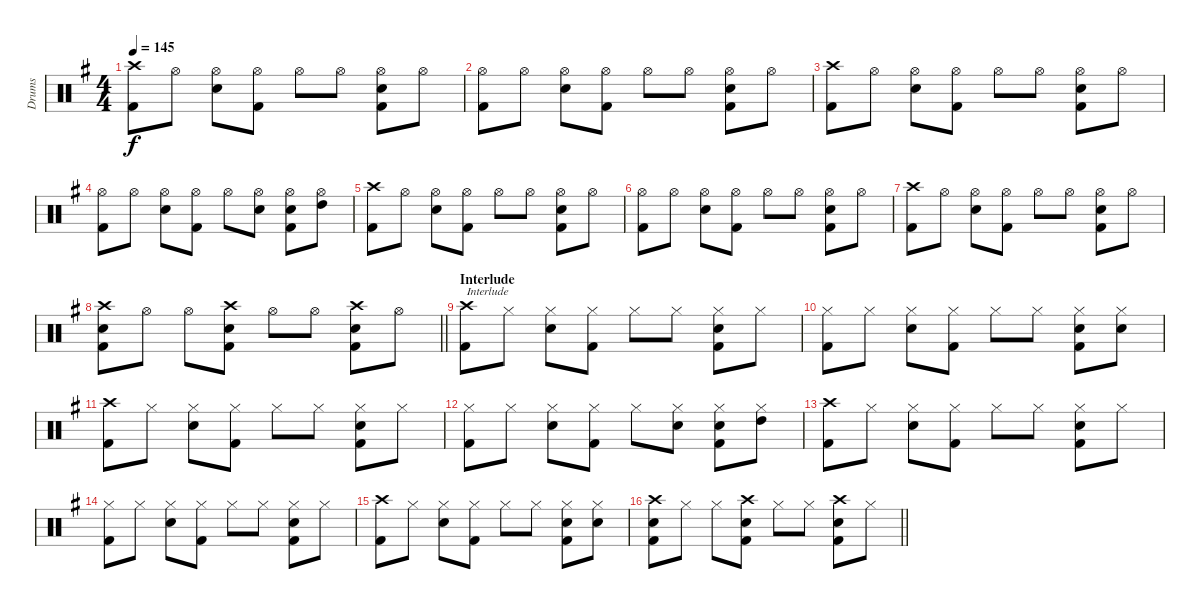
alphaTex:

\track ("Drums" "Drums") {instrument percussion}
\staff {score}
\articulation defaults
\ts (4 4)
\tempo 145
\clef neutral
\ks g
("Crash high (hit)" "Kick (hit) 2").8{dy f} "Hi-Hat (open)".8 ("Hi-Hat (open)" "Electric Snare (hit)").8 ("Hi-Hat (open)" "Kick (hit) 2").8 "Hi-Hat (open)".8 "Hi-Hat (open)".8 ("Hi-Hat (open)" "Electric Snare (hit)" "Kick (hit) 2").8 "Hi-Hat (open)".8 |
("Hi-Hat (open)" "Kick (hit) 2").8 "Hi-Hat (open)".8 ("Hi-Hat (open)" "Electric Snare (hit)").8 ("Hi-Hat (open)" "Kick (hit) 2").8 "Hi-Hat (open)".8 "Hi-Hat (open)".8 ("Hi-Hat (open)" "Electric Snare (hit)" "Kick (hit) 2").8 "Hi-Hat (open)".8 |
("Crash high (hit)" "Kick (hit) 2").8 "Hi-Hat (open)".8 ("Hi-Hat (open)" "Electric Snare (hit)").8 ("Hi-Hat (open)" "Kick (hit) 2").8 "Hi-Hat (open)".8 "Hi-Hat (open)".8 ("Hi-Hat (open)" "Electric Snare (hit)" "Kick (hit) 2").8 "Hi-Hat (open)".8 |
("Hi-Hat (open)" "Kick (hit) 2").8 "Hi-Hat (open)".8 ("Hi-Hat (open)" "Electric Snare (hit)").8 ("Hi-Hat (open)" "Kick (hit) 2").8 "Hi-Hat (open)".8 ("Hi-Hat (open)" "Electric Snare (hit)").8 ("Hi-Hat (open)" "Electric Snare (hit)" "Kick (hit) 2").8 ("Hi-Hat (open)" "High Tom (hit)").8 |
("Crash high (hit)" "Kick (hit) 2").8 "Hi-Hat (open)".8 ("Hi-Hat (open)" "Electric Snare (hit)").8 ("Hi-Hat (open)" "Kick (hit) 2").8 "Hi-Hat (open)".8 "Hi-Hat (open)".8 ("Hi-Hat (open)" "Electric Snare (hit)" "Kick (hit) 2").8 "Hi-Hat (open)".8 |
("Hi-Hat (open)" "Kick (hit) 2").8 "Hi-Hat (open)".8 ("Hi-Hat (open)" "Electric Snare (hit)").8 ("Hi-Hat (open)" "Kick (hit) 2").8 "Hi-Hat (open)".8 "Hi-Hat (open)".8 ("Hi-Hat (open)" "Electric Snare (hit)" "Kick (hit) 2").8 "Hi-Hat (open)".8 |
("Crash high (hit)" "Kick (hit) 2").8 "Hi-Hat (open)".8 ("Hi-Hat (open)" "Electric Snare (hit)").8 ("Hi-Hat (open)" "Kick (hit) 2").8 "Hi-Hat (open)".8 "Hi-Hat (open)".8 ("Hi-Hat (open)" "Electric Snare (hit)" "Kick (hit) 2").8 "Hi-Hat (open)".8 |
\barLineRight lightlight
("Crash high (hit)" "Electric Snare (hit)" "Kick (hit) 2").8 "Hi-Hat (open)".8 "Hi-Hat (open)".8 ("Crash high (hit)" "Electric Snare (hit)" "Kick (hit) 2").8 "Hi-Hat (open)".8 "Hi-Hat (open)".8 ("Crash high (hit)" "Electric Snare (hit)" "Kick (hit) 2").8 "Hi-Hat (open)".8 |
\section ("" "Interlude")
("Crash high (hit)" "Kick (hit) 2").8{txt "Interlude"} "Hi-Hat (closed)".8 ("Hi-Hat (closed)" "Electric Snare (hit)").8 ("Hi-Hat (closed)" "Kick (hit) 2").8 "Hi-Hat (closed)".8 "Hi-Hat (closed)".8 ("Hi-Hat (closed)" "Electric Snare (hit)" "Kick (hit) 2").8 "Hi-Hat (closed)".8 |
("Hi-Hat (closed)" "Kick (hit) 2").8 "Hi-Hat (closed)".8 ("Hi-Hat (closed)" "Electric Snare (hit)").8 ("Hi-Hat (closed)" "Kick (hit) 2").8 "Hi-Hat (closed)".8 "Hi-Hat (closed)".8 ("Hi-Hat (closed)" "Electric Snare (hit)" "Kick (hit) 2").8 ("Hi-Hat (closed)" "Electric Snare (hit)").8 |
("Crash high (hit)" "Kick (hit) 2").8 "Hi-Hat (closed)".8 ("Hi-Hat (closed)" "Electric Snare (hit)").8 ("Hi-Hat (closed)" "Kick (hit) 2").8 "Hi-Hat (closed)".8 "Hi-Hat (closed)".8 ("Hi-Hat (closed)" "Electric Snare (hit)" "Kick (hit) 2").8 "Hi-Hat (closed)".8 |
("Hi-Hat (closed)" "Kick (hit) 2").8 "Hi-Hat (closed)".8 ("Hi-Hat (closed)" "Electric Snare (hit)").8 ("Hi-Hat (closed)" "Kick (hit) 2").8 "Hi-Hat (closed)".8 ("Hi-Hat (closed)" "Electric Snare (hit)").8 ("Hi-Hat (closed)" "Electric Snare (hit)" "Kick (hit) 2").8 ("Hi-Hat (closed)" "High Tom (hit)").8 |
("Crash high (hit)" "Kick (hit) 2").8 "Hi-Hat (closed)".8 ("Hi-Hat (closed)" "Electric Snare (hit)").8 ("Hi-Hat (closed)" "Kick (hit) 2").8 "Hi-Hat (closed)".8 "Hi-Hat (closed)".8 ("Hi-Hat (closed)" "Electric Snare (hit)" "Kick (hit) 2").8 "Hi-Hat (closed)".8 |
("Hi-Hat (closed)" "Kick (hit) 2").8 "Hi-Hat (closed)".8 ("Hi-Hat (closed)" "Electric Snare (hit)").8 ("Hi-Hat (closed)" "Kick (hit) 2").8 "Hi-Hat (closed)".8 "Hi-Hat (closed)".8 ("Hi-Hat (closed)" "Electric Snare (hit)" "Kick (hit) 2").8 "Hi-Hat (closed)".8 |
("Crash high (hit)" "Kick (hit) 2").8 "Hi-Hat (closed)".8 ("Hi-Hat (closed)" "Electric Snare (hit)").8 ("Hi-Hat (closed)" "Kick (hit) 2").8 "Hi-Hat (closed)".8 "Hi-Hat (closed)".8 ("Hi-Hat (closed)" "Electric Snare (hit)" "Kick (hit) 2").8 ("Hi-Hat (closed)" "Electric Snare (hit)").8 |
\barLineRight lightlight
("Crash high (hit)" "Electric Snare (hit)" "Kick (hit) 2").8 "Hi-Hat (closed)".8 "Hi-Hat (closed)".8 ("Crash high (hit)" "Electric Snare (hit)" "Kick (hit) 2").8 "Hi-Hat (closed)".8 "Hi-Hat (closed)".8 ("Crash high (hit)" "Electric Snare (hit)" "Kick (hit) 2").8 "Hi-Hat (closed)".8
